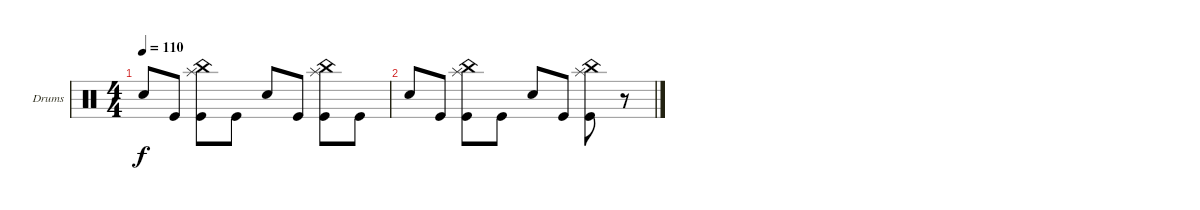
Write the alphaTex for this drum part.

\defaultSystemsLayout 4
\bracketExtendMode groupsimilarinstruments
\firstSystemTrackNameOrientation horizontal
\otherSystemsTrackNameOrientation horizontal
\track ("Drumkit" "Drums") {instrument percussion}
\staff {score}
\articulation defaults
\ts (4 4)
\tempo 110
\clef neutral
\scale
0.333333
\ks c "Snare (hit) 2".8{dy f} "Kick (hit)".8
("Splash (hit)" "China (hit)" "Kick (hit)").8 "Kick (hit)".8 "Snare (hit) 2".8 "Kick (hit)".8 ("Splash (hit)" "China (hit)" "Kick (hit)").8 "Kick (hit)".8 |
"Snare (hit) 2".8 "Kick (hit)".8 ("Splash (hit)" "China (hit)" "Kick (hit)").8 "Kick (hit)".8 "Snare (hit) 2".8 "Kick (hit)".8 ("Splash (hit)" "China (hit)" "Kick (hit)").8 r.8
